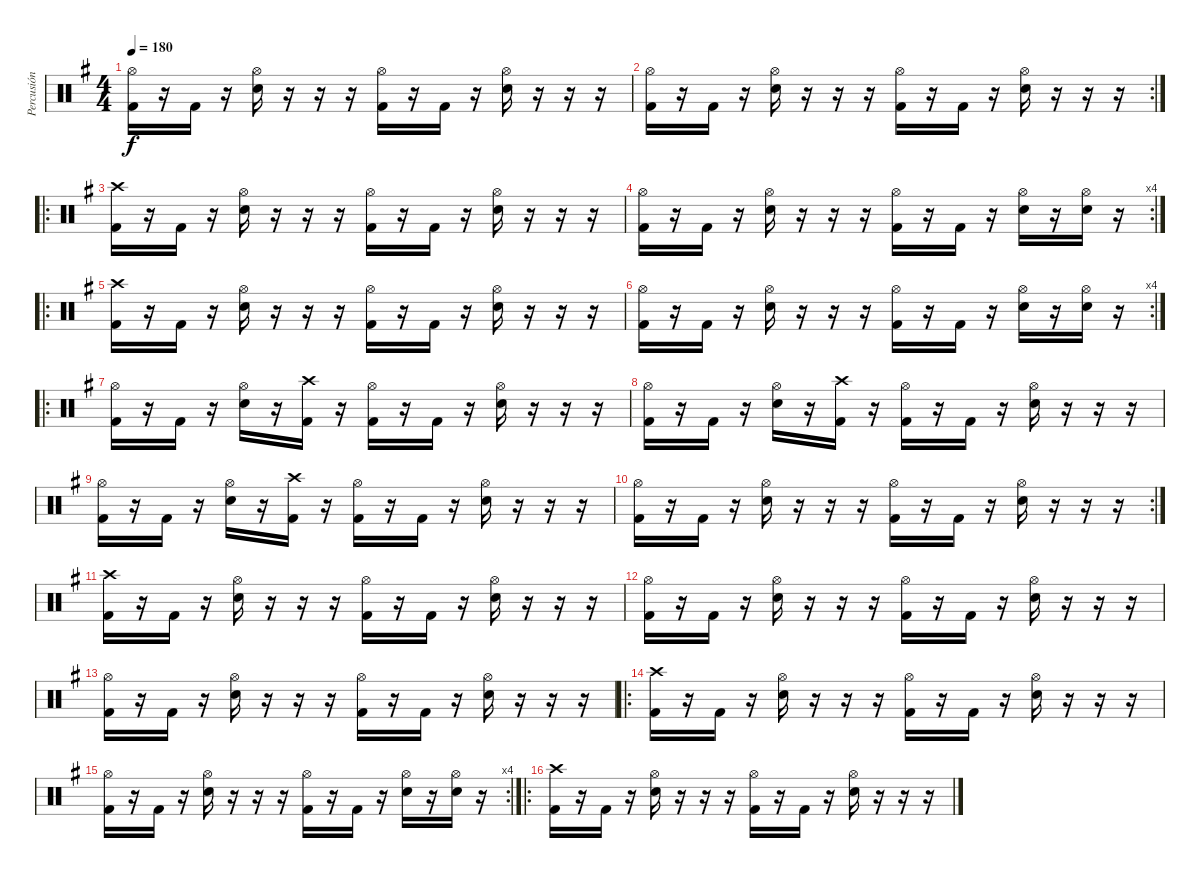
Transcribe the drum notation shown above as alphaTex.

\track ("Percusión" "Percusión") {instrument percussion}
\staff {score}
\articulation defaults
\ts (4 4)
\tempo 180
\clef neutral
\ks g
("Hi-Hat (open)" "Kick (hit) 2").16{dy f} r.16 "Kick (hit) 2".16 r.16 ("Hi-Hat (open)" "Snare (hit) 2").16 r.16 r.16 r.16 ("Hi-Hat (open)" "Kick (hit) 2").16 r.16 "Kick (hit) 2".16 r.16 ("Hi-Hat (open)" "Snare (hit) 2").16 r.16 r.16 r.16 |
\rc 2
("Hi-Hat (open)" "Kick (hit) 2").16 r.16 "Kick (hit) 2".16 r.16 ("Hi-Hat (open)" "Snare (hit) 2").16 r.16 r.16 r.16 ("Hi-Hat (open)" "Kick (hit) 2").16 r.16 "Kick (hit) 2".16 r.16 ("Hi-Hat (open)" "Snare (hit) 2").16 r.16 r.16 r.16 |
\ro
("Crash high (hit)" "Kick (hit) 2").16 r.16 "Kick (hit) 2".16 r.16 ("Hi-Hat (open)" "Snare (hit) 2").16 r.16 r.16 r.16 ("Hi-Hat (open)" "Kick (hit) 2").16 r.16 "Kick (hit) 2".16 r.16 ("Hi-Hat (open)" "Snare (hit) 2").16 r.16 r.16 r.16 |
\rc 4
("Hi-Hat (open)" "Kick (hit) 2").16 r.16 "Kick (hit) 2".16 r.16 ("Hi-Hat (open)" "Snare (hit) 2").16 r.16 r.16 r.16 ("Hi-Hat (open)" "Kick (hit) 2").16 r.16 "Kick (hit) 2".16 r.16 ("Hi-Hat (open)" "Snare (hit) 2").16 r.16 ("Hi-Hat (open)" "Snare (hit) 2").16 r.16 |
\ro
("Crash high (hit)" "Kick (hit) 2").16 r.16 "Kick (hit) 2".16 r.16 ("Hi-Hat (open)" "Snare (hit) 2").16 r.16 r.16 r.16 ("Hi-Hat (open)" "Kick (hit) 2").16 r.16 "Kick (hit) 2".16 r.16 ("Hi-Hat (open)" "Snare (hit) 2").16 r.16 r.16 r.16 |
\rc 4
("Hi-Hat (open)" "Kick (hit) 2").16 r.16 "Kick (hit) 2".16 r.16 ("Hi-Hat (open)" "Snare (hit) 2").16 r.16 r.16 r.16 ("Hi-Hat (open)" "Kick (hit) 2").16 r.16 "Kick (hit) 2".16 r.16 ("Hi-Hat (open)" "Snare (hit) 2").16 r.16 ("Hi-Hat (open)" "Snare (hit) 2").16 r.16 |
\ro
("Hi-Hat (open)" "Kick (hit) 2").16 r.16 "Kick (hit) 2".16 r.16 ("Hi-Hat (open)" "Snare (hit) 2").16 r.16 ("Crash high (hit)" "Kick (hit) 2").16 r.16 ("Hi-Hat (open)" "Kick (hit) 2").16 r.16 "Kick (hit) 2".16 r.16 ("Hi-Hat (open)" "Snare (hit) 2").16 r.16 r.16 r.16 |
("Hi-Hat (open)" "Kick (hit) 2").16 r.16 "Kick (hit) 2".16 r.16 ("Hi-Hat (open)" "Snare (hit) 2").16 r.16 ("Crash high (hit)" "Kick (hit) 2").16 r.16 ("Hi-Hat (open)" "Kick (hit) 2").16 r.16 "Kick (hit) 2".16 r.16 ("Hi-Hat (open)" "Snare (hit) 2").16 r.16 r.16 r.16 |
("Hi-Hat (open)" "Kick (hit) 2").16 r.16 "Kick (hit) 2".16 r.16 ("Hi-Hat (open)" "Snare (hit) 2").16 r.16 ("Crash high (hit)" "Kick (hit) 2").16 r.16 ("Hi-Hat (open)" "Kick (hit) 2").16 r.16 "Kick (hit) 2".16 r.16 ("Hi-Hat (open)" "Snare (hit) 2").16 r.16 r.16 r.16 |
\rc 2
("Hi-Hat (open)" "Kick (hit) 2").16 r.16 "Kick (hit) 2".16 r.16 ("Hi-Hat (open)" "Snare (hit) 2").16 r.16 r.16 r.16 ("Hi-Hat (open)" "Kick (hit) 2").16 r.16 "Kick (hit) 2".16 r.16 ("Hi-Hat (open)" "Snare (hit) 2").16 r.16 r.16 r.16 |
("Crash high (hit)" "Kick (hit) 2").16 r.16 "Kick (hit) 2".16 r.16 ("Hi-Hat (open)" "Snare (hit) 2").16 r.16 r.16 r.16 ("Hi-Hat (open)" "Kick (hit) 2").16 r.16 "Kick (hit) 2".16 r.16 ("Hi-Hat (open)" "Snare (hit) 2").16 r.16 r.16 r.16 |
("Hi-Hat (open)" "Kick (hit) 2").16 r.16 "Kick (hit) 2".16 r.16 ("Hi-Hat (open)" "Snare (hit) 2").16 r.16 r.16 r.16 ("Hi-Hat (open)" "Kick (hit) 2").16 r.16 "Kick (hit) 2".16 r.16 ("Hi-Hat (open)" "Snare (hit) 2").16 r.16 r.16 r.16 |
("Hi-Hat (open)" "Kick (hit) 2").16 r.16 "Kick (hit) 2".16 r.16 ("Hi-Hat (open)" "Snare (hit) 2").16 r.16 r.16 r.16 ("Hi-Hat (open)" "Kick (hit) 2").16 r.16 "Kick (hit) 2".16 r.16 ("Hi-Hat (open)" "Snare (hit) 2").16 r.16 r.16 r.16 |
\ro
("Crash high (hit)" "Kick (hit) 2").16 r.16 "Kick (hit) 2".16 r.16 ("Hi-Hat (open)" "Snare (hit) 2").16 r.16 r.16 r.16 ("Hi-Hat (open)" "Kick (hit) 2").16 r.16 "Kick (hit) 2".16 r.16 ("Hi-Hat (open)" "Snare (hit) 2").16 r.16 r.16 r.16 |
\rc 4
("Hi-Hat (open)" "Kick (hit) 2").16 r.16 "Kick (hit) 2".16 r.16 ("Hi-Hat (open)" "Snare (hit) 2").16 r.16 r.16 r.16 ("Hi-Hat (open)" "Kick (hit) 2").16 r.16 "Kick (hit) 2".16 r.16 ("Hi-Hat (open)" "Snare (hit) 2").16 r.16 ("Hi-Hat (open)" "Snare (hit) 2").16 r.16 |
\ro
("Crash high (hit)" "Kick (hit) 2").16 r.16 "Kick (hit) 2".16 r.16 ("Hi-Hat (open)" "Snare (hit) 2").16 r.16 r.16 r.16 ("Hi-Hat (open)" "Kick (hit) 2").16 r.16 "Kick (hit) 2".16 r.16 ("Hi-Hat (open)" "Snare (hit) 2").16 r.16 r.16 r.16
